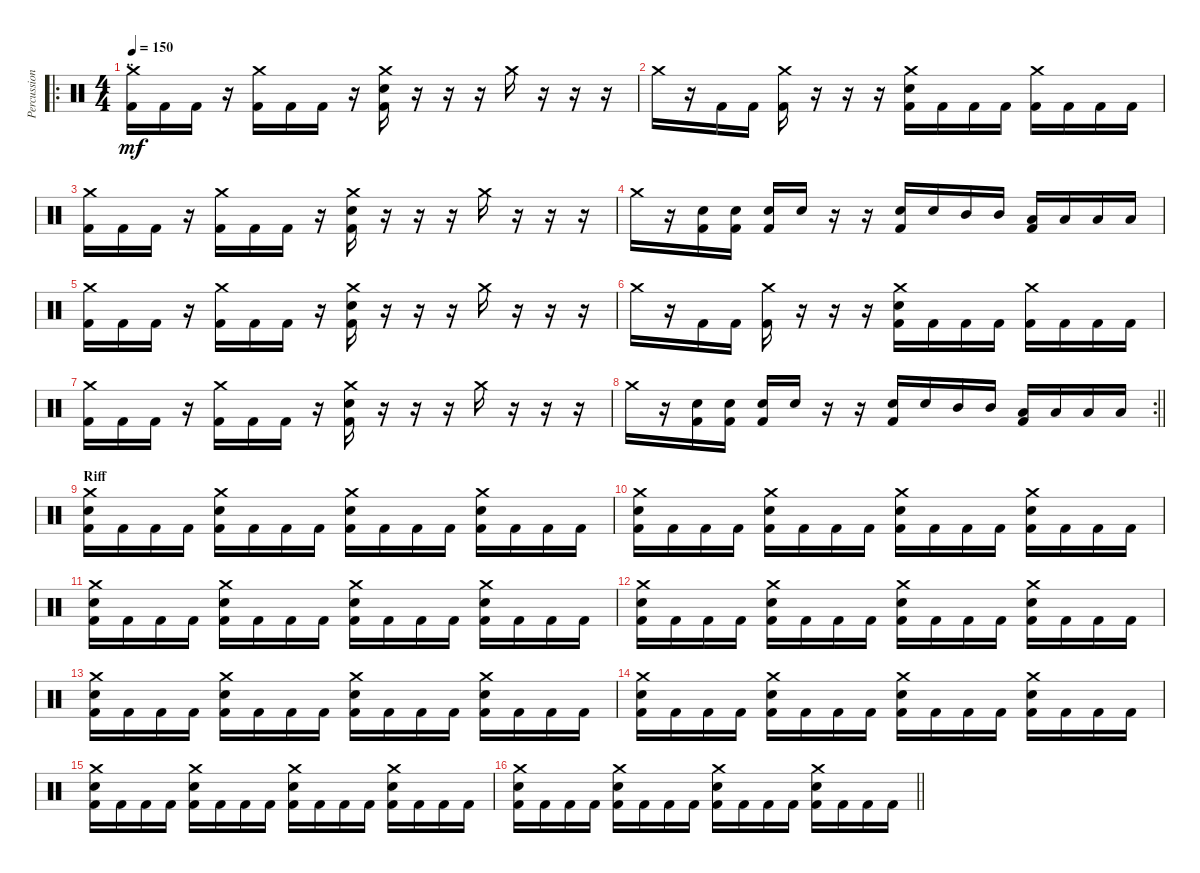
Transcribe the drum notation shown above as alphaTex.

\track ("Percussion" "Percussion") {instrument percussion}
\staff {score}
\articulation defaults
\ro
\ts (4 4)
\section ("" "..")
\tempo 150
\clef neutral
\ks c
("Crash medium (hit)" "Kick (hit) 2").16{dy mf} "Kick (hit) 2".16 "Kick (hit) 2".16 r.16 ("Crash medium (hit)" "Kick (hit) 2").16 "Kick (hit) 2".16 "Kick (hit) 2".16 r.16 ("Crash medium (hit)" "Electric Snare (hit)" "Kick (hit) 2").16 r.16 r.16 r.16 "Crash medium (hit)".16 r.16 r.16 r.16 |
"Crash medium (hit)".16 r.16 "Kick (hit) 2".16 "Kick (hit) 2".16 ("Crash medium (hit)" "Kick (hit) 2").16 r.16 r.16 r.16 ("Crash medium (hit)" "Electric Snare (hit)" "Kick (hit) 2").16 "Kick (hit) 2".16 "Kick (hit) 2".16 "Kick (hit) 2".16 ("Crash medium (hit)" "Kick (hit) 2").16 "Kick (hit) 2".16 "Kick (hit) 2".16 "Kick (hit) 2".16 |
("Crash medium (hit)" "Kick (hit) 2").16 "Kick (hit) 2".16 "Kick (hit) 2".16 r.16 ("Crash medium (hit)" "Kick (hit) 2").16 "Kick (hit) 2".16 "Kick (hit) 2".16 r.16 ("Crash medium (hit)" "Electric Snare (hit)" "Kick (hit) 2").16 r.16 r.16 r.16 "Crash medium (hit)".16 r.16 r.16 r.16 |
"Crash medium (hit)".16 r.16 ("Electric Snare (hit)" "Kick (hit) 2").16 ("Electric Snare (hit)" "Kick (hit) 2").16 ("Electric Snare (hit)" "Kick (hit) 2").16 "Electric Snare (hit)".16 r.16 r.16 ("Electric Snare (hit)" "Kick (hit) 2").16 "Electric Snare (hit)".16 "Mid Tom (hit)".16 "Mid Tom (hit)".16 ("Low Tom (hit)" "Kick (hit) 2").16 "Low Tom (hit)".16 "Low Floor Tom (hit)".16 "Low Floor Tom (hit)".16 |
("Crash medium (hit)" "Kick (hit) 2").16 "Kick (hit) 2".16 "Kick (hit) 2".16 r.16 ("Crash medium (hit)" "Kick (hit) 2").16 "Kick (hit) 2".16 "Kick (hit) 2".16 r.16 ("Crash medium (hit)" "Electric Snare (hit)" "Kick (hit) 2").16 r.16 r.16 r.16 "Crash medium (hit)".16 r.16 r.16 r.16 |
"Crash medium (hit)".16 r.16 "Kick (hit) 2".16 "Kick (hit) 2".16 ("Crash medium (hit)" "Kick (hit) 2").16 r.16 r.16 r.16 ("Crash medium (hit)" "Electric Snare (hit)" "Kick (hit) 2").16 "Kick (hit) 2".16 "Kick (hit) 2".16 "Kick (hit) 2".16 ("Crash medium (hit)" "Kick (hit) 2").16 "Kick (hit) 2".16 "Kick (hit) 2".16 "Kick (hit) 2".16 |
("Crash medium (hit)" "Kick (hit) 2").16 "Kick (hit) 2".16 "Kick (hit) 2".16 r.16 ("Crash medium (hit)" "Kick (hit) 2").16 "Kick (hit) 2".16 "Kick (hit) 2".16 r.16 ("Crash medium (hit)" "Electric Snare (hit)" "Kick (hit) 2").16 r.16 r.16 r.16 "Crash medium (hit)".16 r.16 r.16 r.16 |
\rc 2
\barLineRight lightlight "Crash medium (hit)".16
r.16 ("Electric Snare (hit)" "Kick (hit) 2").16 ("Electric Snare (hit)" "Kick (hit) 2").16 ("Electric Snare (hit)" "Kick (hit) 2").16 "Electric Snare (hit)".16 r.16 r.16 ("Electric Snare (hit)" "Kick (hit) 2").16 "Electric Snare (hit)".16 "Mid Tom (hit)".16 "Mid Tom (hit)".16 ("Low Tom (hit)" "Kick (hit) 2").16 "Low Tom (hit)".16 "Low Floor Tom (hit)".16 "Low Floor Tom (hit)".16 |
\section ("" "Riff")
("Crash medium (hit)" "Electric Snare (hit)" "Kick (hit) 2").16 "Kick (hit) 2".16 "Kick (hit) 2".16 "Kick (hit) 2".16 ("Crash medium (hit)" "Electric Snare (hit)" "Kick (hit) 2").16 "Kick (hit) 2".16 "Kick (hit) 2".16 "Kick (hit) 2".16 ("Crash medium (hit)" "Electric Snare (hit)" "Kick (hit) 2").16 "Kick (hit) 2".16 "Kick (hit) 2".16 "Kick (hit) 2".16 ("Crash medium (hit)" "Electric Snare (hit)" "Kick (hit) 2").16 "Kick (hit) 2".16 "Kick (hit) 2".16 "Kick (hit) 2".16 |
("Crash medium (hit)" "Electric Snare (hit)" "Kick (hit) 2").16 "Kick (hit) 2".16 "Kick (hit) 2".16 "Kick (hit) 2".16 ("Crash medium (hit)" "Electric Snare (hit)" "Kick (hit) 2").16 "Kick (hit) 2".16 "Kick (hit) 2".16 "Kick (hit) 2".16 ("Crash medium (hit)" "Electric Snare (hit)" "Kick (hit) 2").16 "Kick (hit) 2".16 "Kick (hit) 2".16 "Kick (hit) 2".16 ("Crash medium (hit)" "Electric Snare (hit)" "Kick (hit) 2").16 "Kick (hit) 2".16 "Kick (hit) 2".16 "Kick (hit) 2".16 |
("Crash medium (hit)" "Electric Snare (hit)" "Kick (hit) 2").16 "Kick (hit) 2".16 "Kick (hit) 2".16 "Kick (hit) 2".16 ("Crash medium (hit)" "Electric Snare (hit)" "Kick (hit) 2").16 "Kick (hit) 2".16 "Kick (hit) 2".16 "Kick (hit) 2".16 ("Crash medium (hit)" "Electric Snare (hit)" "Kick (hit) 2").16 "Kick (hit) 2".16 "Kick (hit) 2".16 "Kick (hit) 2".16 ("Crash medium (hit)" "Electric Snare (hit)" "Kick (hit) 2").16 "Kick (hit) 2".16 "Kick (hit) 2".16 "Kick (hit) 2".16 |
("Crash medium (hit)" "Electric Snare (hit)" "Kick (hit) 2").16 "Kick (hit) 2".16 "Kick (hit) 2".16 "Kick (hit) 2".16 ("Crash medium (hit)" "Electric Snare (hit)" "Kick (hit) 2").16 "Kick (hit) 2".16 "Kick (hit) 2".16 "Kick (hit) 2".16 ("Crash medium (hit)" "Electric Snare (hit)" "Kick (hit) 2").16 "Kick (hit) 2".16 "Kick (hit) 2".16 "Kick (hit) 2".16 ("Crash medium (hit)" "Electric Snare (hit)" "Kick (hit) 2").16 "Kick (hit) 2".16 "Kick (hit) 2".16 "Kick (hit) 2".16 |
("Crash medium (hit)" "Electric Snare (hit)" "Kick (hit) 2").16 "Kick (hit) 2".16 "Kick (hit) 2".16 "Kick (hit) 2".16 ("Crash medium (hit)" "Electric Snare (hit)" "Kick (hit) 2").16 "Kick (hit) 2".16 "Kick (hit) 2".16 "Kick (hit) 2".16 ("Crash medium (hit)" "Electric Snare (hit)" "Kick (hit) 2").16 "Kick (hit) 2".16 "Kick (hit) 2".16 "Kick (hit) 2".16 ("Crash medium (hit)" "Electric Snare (hit)" "Kick (hit) 2").16 "Kick (hit) 2".16 "Kick (hit) 2".16 "Kick (hit) 2".16 |
("Crash medium (hit)" "Electric Snare (hit)" "Kick (hit) 2").16 "Kick (hit) 2".16 "Kick (hit) 2".16 "Kick (hit) 2".16 ("Crash medium (hit)" "Electric Snare (hit)" "Kick (hit) 2").16 "Kick (hit) 2".16 "Kick (hit) 2".16 "Kick (hit) 2".16 ("Crash medium (hit)" "Electric Snare (hit)" "Kick (hit) 2").16 "Kick (hit) 2".16 "Kick (hit) 2".16 "Kick (hit) 2".16 ("Crash medium (hit)" "Electric Snare (hit)" "Kick (hit) 2").16 "Kick (hit) 2".16 "Kick (hit) 2".16 "Kick (hit) 2".16 |
("Crash medium (hit)" "Electric Snare (hit)" "Kick (hit) 2").16 "Kick (hit) 2".16 "Kick (hit) 2".16 "Kick (hit) 2".16 ("Crash medium (hit)" "Electric Snare (hit)" "Kick (hit) 2").16 "Kick (hit) 2".16 "Kick (hit) 2".16 "Kick (hit) 2".16 ("Crash medium (hit)" "Electric Snare (hit)" "Kick (hit) 2").16 "Kick (hit) 2".16 "Kick (hit) 2".16 "Kick (hit) 2".16 ("Crash medium (hit)" "Electric Snare (hit)" "Kick (hit) 2").16 "Kick (hit) 2".16 "Kick (hit) 2".16 "Kick (hit) 2".16 |
\barLineRight lightlight
("Crash medium (hit)" "Electric Snare (hit)" "Kick (hit) 2").16 "Kick (hit) 2".16 "Kick (hit) 2".16 "Kick (hit) 2".16 ("Crash medium (hit)" "Electric Snare (hit)" "Kick (hit) 2").16 "Kick (hit) 2".16 "Kick (hit) 2".16 "Kick (hit) 2".16 ("Crash medium (hit)" "Electric Snare (hit)" "Kick (hit) 2").16 "Kick (hit) 2".16 "Kick (hit) 2".16 "Kick (hit) 2".16 ("Crash medium (hit)" "Electric Snare (hit)" "Kick (hit) 2").16 "Kick (hit) 2".16 "Kick (hit) 2".16 "Kick (hit) 2".16
